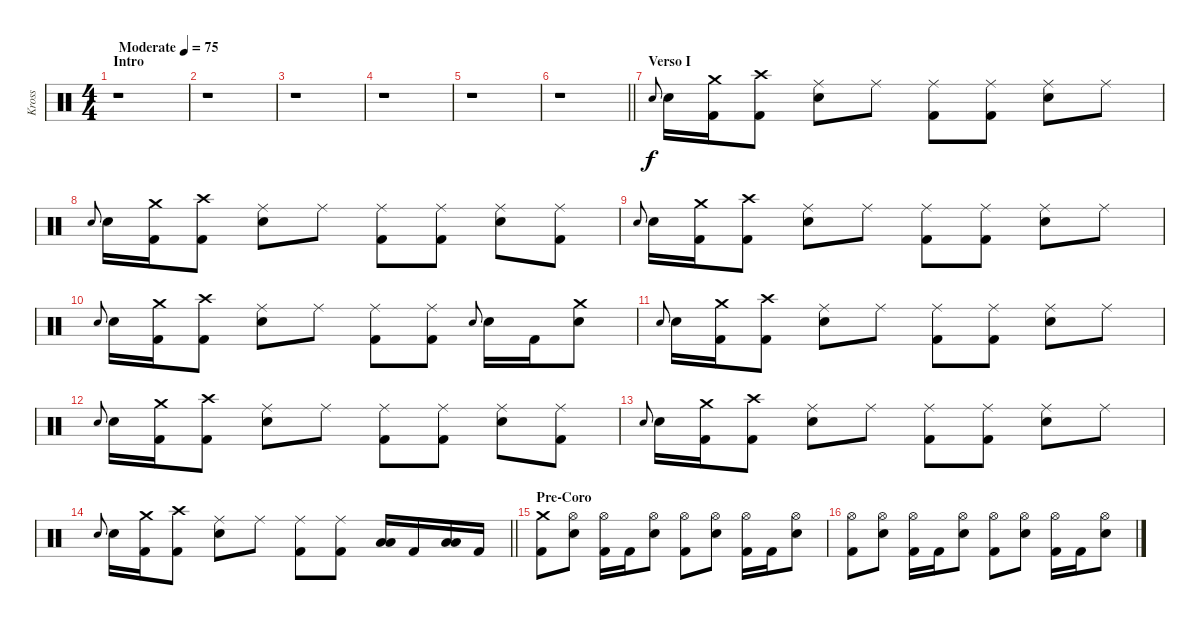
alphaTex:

\track ("Kross" "Kross") {instrument percussion}
\staff
\articulation defaults
\ts (4 4)
\section ("" "Intro")
\tempo (75 "Moderate")
\clef neutral
\ks c
r.1{dy f} |
r.1 |
r.1 |
r.1 |
r.1 |
\barLineRight lightlight
r.1 |
\section ("" "Verso I")
"Electric Snare (hit)".8{gr onbeat} "Electric Snare (hit)".16 ("Crash medium (hit)" "Kick (hit) 2").16 ("Crash high (hit)" "Kick (hit) 2").8 ("Ride (middle)" "Electric Snare (hit)").8 "Ride (middle)".8 ("Ride (middle)" "Kick (hit) 2").8 ("Ride (middle)" "Kick (hit) 2").8 ("Ride (middle)" "Electric Snare (hit)").8 "Ride (middle)".8 |
"Electric Snare (hit)".8{gr onbeat} "Electric Snare (hit)".16 ("Crash medium (hit)" "Kick (hit) 2").16 ("Crash high (hit)" "Kick (hit) 2").8 ("Ride (middle)" "Electric Snare (hit)").8 "Ride (middle)".8 ("Ride (middle)" "Kick (hit) 2").8 ("Ride (middle)" "Kick (hit) 2").8 ("Ride (middle)" "Electric Snare (hit)").8 ("Ride (middle)" "Kick (hit) 2").8 |
"Electric Snare (hit)".8{gr onbeat} "Electric Snare (hit)".16 ("Crash medium (hit)" "Kick (hit) 2").16 ("Crash high (hit)" "Kick (hit) 2").8 ("Ride (middle)" "Electric Snare (hit)").8 "Ride (middle)".8 ("Ride (middle)" "Kick (hit) 2").8 ("Ride (middle)" "Kick (hit) 2").8 ("Ride (middle)" "Electric Snare (hit)").8 "Ride (middle)".8 |
"Electric Snare (hit)".8{gr onbeat} "Electric Snare (hit)".16 ("Crash medium (hit)" "Kick (hit) 2").16 ("Crash high (hit)" "Kick (hit) 2").8 ("Ride (middle)" "Electric Snare (hit)").8 "Ride (middle)".8 ("Ride (middle)" "Kick (hit) 2").8 ("Ride (middle)" "Kick (hit) 2").8 "Electric Snare (hit)".8{gr onbeat} "Electric Snare (hit)".16 "Kick (hit) 2".16 ("Crash medium (hit)" "Electric Snare (hit)").8 |
"Electric Snare (hit)".8{gr onbeat} "Electric Snare (hit)".16 ("Crash medium (hit)" "Kick (hit) 2").16 ("Crash high (hit)" "Kick (hit) 2").8 ("Ride (middle)" "Electric Snare (hit)").8 "Ride (middle)".8 ("Ride (middle)" "Kick (hit) 2").8 ("Ride (middle)" "Kick (hit) 2").8 ("Ride (middle)" "Electric Snare (hit)").8 "Ride (middle)".8 |
"Electric Snare (hit)".8{gr onbeat} "Electric Snare (hit)".16 ("Crash medium (hit)" "Kick (hit) 2").16 ("Crash high (hit)" "Kick (hit) 2").8 ("Ride (middle)" "Electric Snare (hit)").8 "Ride (middle)".8 ("Ride (middle)" "Kick (hit) 2").8 ("Ride (middle)" "Kick (hit) 2").8 ("Ride (middle)" "Electric Snare (hit)").8 ("Ride (middle)" "Kick (hit) 2").8 |
"Electric Snare (hit)".8{gr onbeat} "Electric Snare (hit)".16 ("Crash medium (hit)" "Kick (hit) 2").16 ("Crash high (hit)" "Kick (hit) 2").8 ("Ride (middle)" "Electric Snare (hit)").8 "Ride (middle)".8 ("Ride (middle)" "Kick (hit) 2").8 ("Ride (middle)" "Kick (hit) 2").8 ("Ride (middle)" "Electric Snare (hit)").8 "Ride (middle)".8 |
\barLineRight lightlight "Electric Snare (hit)".8{gr onbeat} "Electric Snare (hit)".16
("Crash medium (hit)" "Kick (hit) 2").16 ("Crash high (hit)" "Kick (hit) 2").8 ("Ride (middle)" "Electric Snare (hit)").8 "Ride (middle)".8 ("Ride (middle)" "Kick (hit) 2").8 ("Ride (middle)" "Kick (hit) 2").8 ("Low Tom (hit)" "Low Floor Tom (hit)").16 "Kick (hit) 2".16 ("Low Tom (hit)" "Low Floor Tom (hit)").16 "Kick (hit) 2".16 |
\section ("" "Pre-Coro")
("Crash medium (hit)" "Kick (hit) 2").8 ("Hi-Hat (open)" "Electric Snare (hit)").8 ("Hi-Hat (open)" "Kick (hit) 2").16 "Kick (hit) 2".16 ("Hi-Hat (open)" "Electric Snare (hit)").8 ("Hi-Hat (open)" "Kick (hit) 2").8 ("Hi-Hat (open)" "Electric Snare (hit)").8 ("Hi-Hat (open)" "Kick (hit) 2").16 "Kick (hit) 2".16 ("Hi-Hat (open)" "Electric Snare (hit)").8 |
("Hi-Hat (open)" "Kick (hit) 2").8 ("Hi-Hat (open)" "Electric Snare (hit)").8 ("Hi-Hat (open)" "Kick (hit) 2").16 "Kick (hit) 2".16 ("Hi-Hat (open)" "Electric Snare (hit)").8 ("Hi-Hat (open)" "Kick (hit) 2").8 ("Hi-Hat (open)" "Electric Snare (hit)").8 ("Hi-Hat (open)" "Kick (hit) 2").16 "Kick (hit) 2".16 ("Hi-Hat (open)" "Electric Snare (hit)").8
